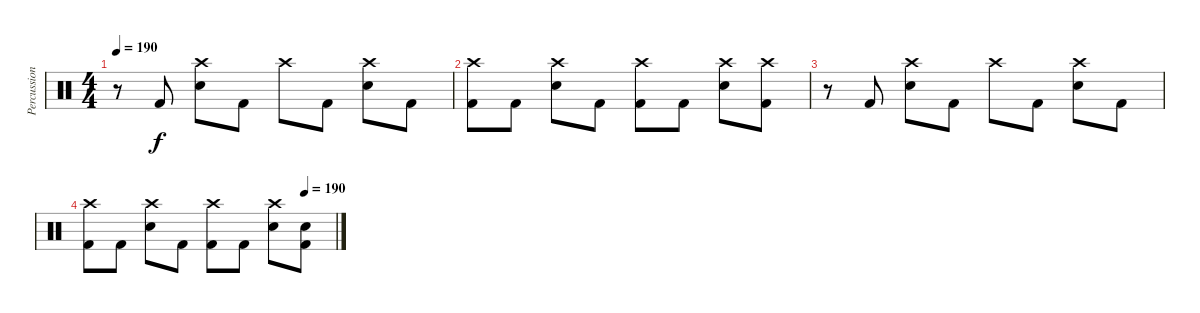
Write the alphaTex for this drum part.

\track ("Percussions" "Percussion") {instrument percussion}
\staff {score}
\articulation defaults
\ts (4 4)
\tempo 190
\clef neutral
\ks c
r.8{dy f} "Kick (hit) 2".8 ("Crash high (hit)" "Electric Snare (hit)").8 "Kick (hit) 2".8 "Crash high (hit)".8 "Kick (hit) 2".8 ("Crash high (hit)" "Electric Snare (hit)").8 "Kick (hit) 2".8 |
("Crash high (hit)" "Kick (hit) 2").8 "Kick (hit) 2".8 ("Crash high (hit)" "Electric Snare (hit)").8 "Kick (hit) 2".8 ("Crash high (hit)" "Kick (hit) 2").8 "Kick (hit) 2".8 ("Crash high (hit)" "Electric Snare (hit)").8 ("Crash high (hit)" "Kick (hit) 2").8 |
r.8 "Kick (hit) 2".8 ("Crash high (hit)" "Electric Snare (hit)").8 "Kick (hit) 2".8 "Crash high (hit)".8 "Kick (hit) 2".8 ("Crash high (hit)" "Electric Snare (hit)").8 "Kick (hit) 2".8 |
\tempo (190 0.875)
("Crash high (hit)" "Kick (hit) 2").8 "Kick (hit) 2".8 ("Crash high (hit)" "Electric Snare (hit)").8 "Kick (hit) 2".8 ("Crash high (hit)" "Kick (hit) 2").8 "Kick (hit) 2".8 ("Crash high (hit)" "Electric Snare (hit)").8 ("Electric Snare (hit)" "Kick (hit) 2").8
